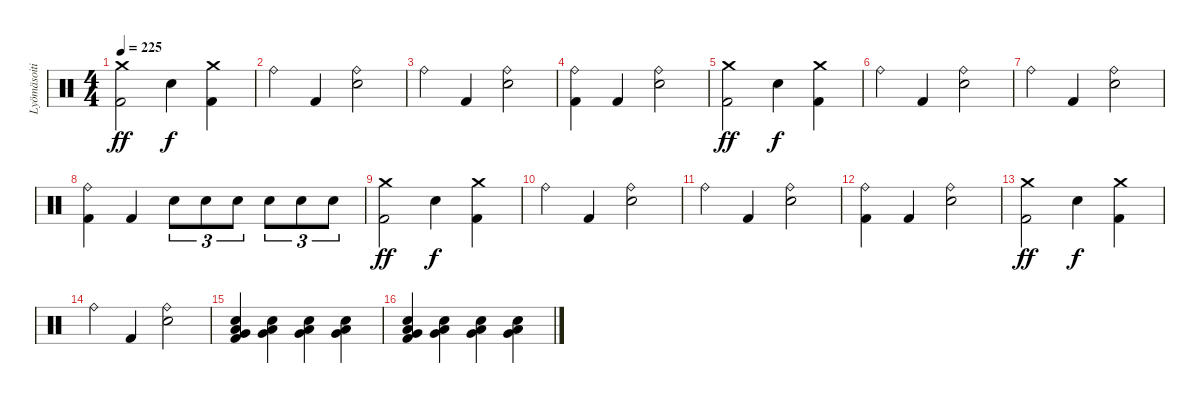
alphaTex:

\track ("Lyömäsoitin" "Lyömäsoiti") {instrument percussion}
\staff {score}
\articulation defaults
\ts (4 4)
\tempo 225
\clef neutral
\ks c
("Crash medium (hit)" "Kick (hit) 2").2{dy ff} "Snare (hit) 2".4{dy f} ("Crash medium (hit)" "Kick (hit) 2").4 |
"Ride (bell)".4 "Kick (hit) 2".4 ("Ride (bell)" "Snare (hit) 2").2 |
"Ride (bell)".4 "Kick (hit) 2".4 ("Ride (bell)" "Snare (hit) 2").2 |
("Ride (bell)" "Kick (hit) 2").4 "Kick (hit) 2".4 ("Ride (bell)" "Snare (hit) 2").2 |
("Crash medium (hit)" "Kick (hit) 2").2{dy ff} "Snare (hit) 2".4{dy f} ("Crash medium (hit)" "Kick (hit) 2").4 |
"Ride (bell)".4 "Kick (hit) 2".4 ("Ride (bell)" "Snare (hit) 2").2 |
"Ride (bell)".4 "Kick (hit) 2".4 ("Ride (bell)" "Snare (hit) 2").2 |
("Ride (bell)" "Kick (hit) 2").4 "Kick (hit) 2".4 "Snare (hit) 2".8{tu (3 2)} "Snare (hit) 2".8{tu (3 2)} "Snare (hit) 2".8{tu (3 2)} "Snare (hit) 2".8{tu (3 2)} "Snare (hit) 2".8{tu (3 2)} "Snare (hit) 2".8{tu (3 2)} |
("Crash medium (hit)" "Kick (hit) 2").2{dy ff} "Snare (hit) 2".4{dy f} ("Crash medium (hit)" "Kick (hit) 2").4 |
"Ride (bell)".4 "Kick (hit) 2".4 ("Ride (bell)" "Snare (hit) 2").2 |
"Ride (bell)".4 "Kick (hit) 2".4 ("Ride (bell)" "Snare (hit) 2").2 |
("Ride (bell)" "Kick (hit) 2").4 "Kick (hit) 2".4 ("Ride (bell)" "Snare (hit) 2").2 |
("Crash medium (hit)" "Kick (hit) 2").2{dy ff} "Snare (hit) 2".4{dy f} ("Crash medium (hit)" "Kick (hit) 2").4 |
"Ride (bell)".4 "Kick (hit) 2".4 ("Ride (bell)" "Snare (hit) 2").2 |
("Snare (hit) 2" "Very Low Tom (hit)" "Low Floor Tom (hit)" "Kick (hit) 2").4 ("Snare (hit) 2" "Very Low Tom (hit)" "Low Floor Tom (hit)").4 ("Snare (hit) 2" "Very Low Tom (hit)" "Low Floor Tom (hit)").4 ("Snare (hit) 2" "Very Low Tom (hit)" "Low Floor Tom (hit)").4 |
("Snare (hit) 2" "Very Low Tom (hit)" "Low Floor Tom (hit)" "Kick (hit) 2").4 ("Snare (hit) 2" "Very Low Tom (hit)" "Low Floor Tom (hit)").4 ("Snare (hit) 2" "Very Low Tom (hit)" "Low Floor Tom (hit)").4 ("Snare (hit) 2" "Very Low Tom (hit)" "Low Floor Tom (hit)").4
